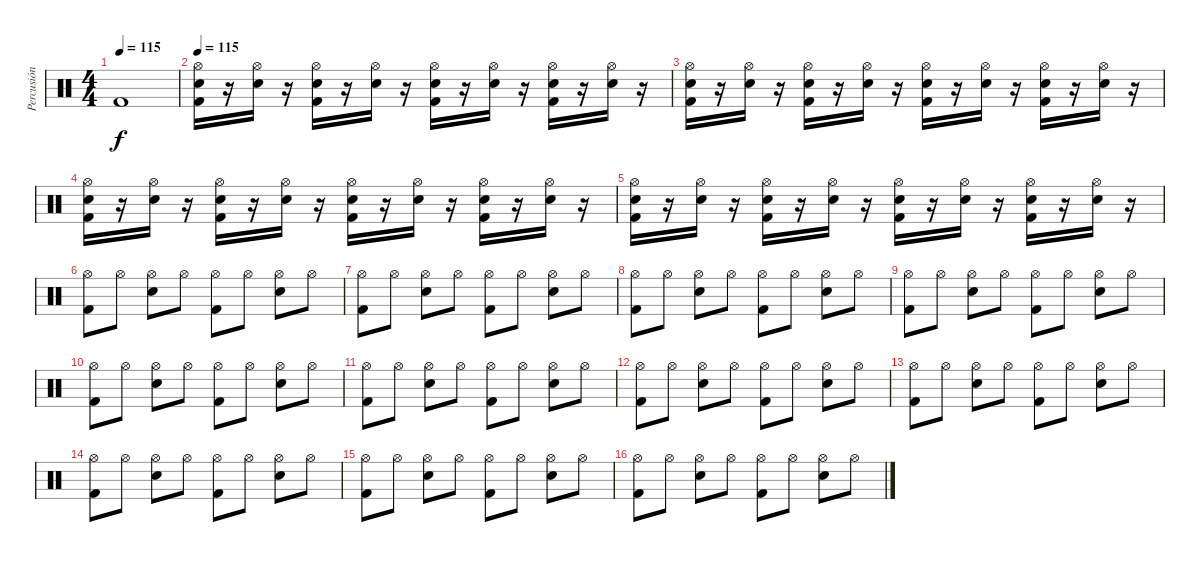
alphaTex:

\track ("Percusión" "Percusión") {instrument percussion}
\staff {score}
\articulation defaults
\ts (4 4)
\tempo 115
\clef neutral
\ks c "Kick (hit) 2".1{dy f}
|
\tempo 115
("Kick (hit) 2" "Electric Snare (hit)" "Hi-Hat (open)").16 r.16 ("Electric Snare (hit)" "Hi-Hat (open)").16 r.16 ("Kick (hit) 2" "Electric Snare (hit)" "Hi-Hat (open)").16 r.16 ("Electric Snare (hit)" "Hi-Hat (open)").16 r.16 ("Kick (hit) 2" "Electric Snare (hit)" "Hi-Hat (open)").16 r.16 ("Electric Snare (hit)" "Hi-Hat (open)").16 r.16 ("Kick (hit) 2" "Electric Snare (hit)" "Hi-Hat (open)").16 r.16 ("Electric Snare (hit)" "Hi-Hat (open)").16 r.16 |
("Kick (hit) 2" "Electric Snare (hit)" "Hi-Hat (open)").16 r.16 ("Electric Snare (hit)" "Hi-Hat (open)").16 r.16 ("Kick (hit) 2" "Electric Snare (hit)" "Hi-Hat (open)").16 r.16 ("Electric Snare (hit)" "Hi-Hat (open)").16 r.16 ("Kick (hit) 2" "Electric Snare (hit)" "Hi-Hat (open)").16 r.16 ("Electric Snare (hit)" "Hi-Hat (open)").16 r.16 ("Kick (hit) 2" "Electric Snare (hit)" "Hi-Hat (open)").16 r.16 ("Electric Snare (hit)" "Hi-Hat (open)").16 r.16 |
("Kick (hit) 2" "Electric Snare (hit)" "Hi-Hat (open)").16 r.16 ("Electric Snare (hit)" "Hi-Hat (open)").16 r.16 ("Kick (hit) 2" "Electric Snare (hit)" "Hi-Hat (open)").16 r.16 ("Electric Snare (hit)" "Hi-Hat (open)").16 r.16 ("Kick (hit) 2" "Electric Snare (hit)" "Hi-Hat (open)").16 r.16 ("Electric Snare (hit)" "Hi-Hat (open)").16 r.16 ("Kick (hit) 2" "Electric Snare (hit)" "Hi-Hat (open)").16 r.16 ("Electric Snare (hit)" "Hi-Hat (open)").16 r.16 |
("Kick (hit) 2" "Electric Snare (hit)" "Hi-Hat (open)").16 r.16 ("Electric Snare (hit)" "Hi-Hat (open)").16 r.16 ("Kick (hit) 2" "Electric Snare (hit)" "Hi-Hat (open)").16 r.16 ("Electric Snare (hit)" "Hi-Hat (open)").16 r.16 ("Kick (hit) 2" "Electric Snare (hit)" "Hi-Hat (open)").16 r.16 ("Electric Snare (hit)" "Hi-Hat (open)").16 r.16 ("Kick (hit) 2" "Electric Snare (hit)" "Hi-Hat (open)").16 r.16 ("Electric Snare (hit)" "Hi-Hat (open)").16 r.16 |
("Kick (hit) 2" "Hi-Hat (open)").8 "Hi-Hat (open)".8 ("Electric Snare (hit)" "Hi-Hat (open)").8 "Hi-Hat (open)".8 ("Kick (hit) 2" "Hi-Hat (open)").8 "Hi-Hat (open)".8 ("Electric Snare (hit)" "Hi-Hat (open)").8 "Hi-Hat (open)".8 |
("Kick (hit) 2" "Hi-Hat (open)").8 "Hi-Hat (open)".8 ("Electric Snare (hit)" "Hi-Hat (open)").8 "Hi-Hat (open)".8 ("Kick (hit) 2" "Hi-Hat (open)").8 "Hi-Hat (open)".8 ("Electric Snare (hit)" "Hi-Hat (open)").8 "Hi-Hat (open)".8 |
("Kick (hit) 2" "Hi-Hat (open)").8 "Hi-Hat (open)".8 ("Electric Snare (hit)" "Hi-Hat (open)").8 "Hi-Hat (open)".8 ("Kick (hit) 2" "Hi-Hat (open)").8 "Hi-Hat (open)".8 ("Electric Snare (hit)" "Hi-Hat (open)").8 "Hi-Hat (open)".8 |
("Kick (hit) 2" "Hi-Hat (open)").8 "Hi-Hat (open)".8 ("Electric Snare (hit)" "Hi-Hat (open)").8 "Hi-Hat (open)".8 ("Kick (hit) 2" "Hi-Hat (open)").8 "Hi-Hat (open)".8 ("Electric Snare (hit)" "Hi-Hat (open)").8 "Hi-Hat (open)".8 |
("Kick (hit) 2" "Hi-Hat (open)").8 "Hi-Hat (open)".8 ("Electric Snare (hit)" "Hi-Hat (open)").8 "Hi-Hat (open)".8 ("Kick (hit) 2" "Hi-Hat (open)").8 "Hi-Hat (open)".8 ("Electric Snare (hit)" "Hi-Hat (open)").8 "Hi-Hat (open)".8 |
("Kick (hit) 2" "Hi-Hat (open)").8 "Hi-Hat (open)".8 ("Electric Snare (hit)" "Hi-Hat (open)").8 "Hi-Hat (open)".8 ("Kick (hit) 2" "Hi-Hat (open)").8 "Hi-Hat (open)".8 ("Electric Snare (hit)" "Hi-Hat (open)").8 "Hi-Hat (open)".8 |
("Kick (hit) 2" "Hi-Hat (open)").8 "Hi-Hat (open)".8 ("Electric Snare (hit)" "Hi-Hat (open)").8 "Hi-Hat (open)".8 ("Kick (hit) 2" "Hi-Hat (open)").8 "Hi-Hat (open)".8 ("Electric Snare (hit)" "Hi-Hat (open)").8 "Hi-Hat (open)".8 |
("Kick (hit) 2" "Hi-Hat (open)").8 "Hi-Hat (open)".8 ("Electric Snare (hit)" "Hi-Hat (open)").8 "Hi-Hat (open)".8 ("Kick (hit) 2" "Hi-Hat (open)").8 "Hi-Hat (open)".8 ("Electric Snare (hit)" "Hi-Hat (open)").8 "Hi-Hat (open)".8 |
("Kick (hit) 2" "Hi-Hat (open)").8 "Hi-Hat (open)".8 ("Electric Snare (hit)" "Hi-Hat (open)").8 "Hi-Hat (open)".8 ("Kick (hit) 2" "Hi-Hat (open)").8 "Hi-Hat (open)".8 ("Electric Snare (hit)" "Hi-Hat (open)").8 "Hi-Hat (open)".8 |
("Kick (hit) 2" "Hi-Hat (open)").8 "Hi-Hat (open)".8 ("Electric Snare (hit)" "Hi-Hat (open)").8 "Hi-Hat (open)".8 ("Kick (hit) 2" "Hi-Hat (open)").8 "Hi-Hat (open)".8 ("Electric Snare (hit)" "Hi-Hat (open)").8 "Hi-Hat (open)".8 |
("Kick (hit) 2" "Hi-Hat (open)").8 "Hi-Hat (open)".8 ("Electric Snare (hit)" "Hi-Hat (open)").8 "Hi-Hat (open)".8 ("Kick (hit) 2" "Hi-Hat (open)").8 "Hi-Hat (open)".8 ("Electric Snare (hit)" "Hi-Hat (open)").8 "Hi-Hat (open)".8
